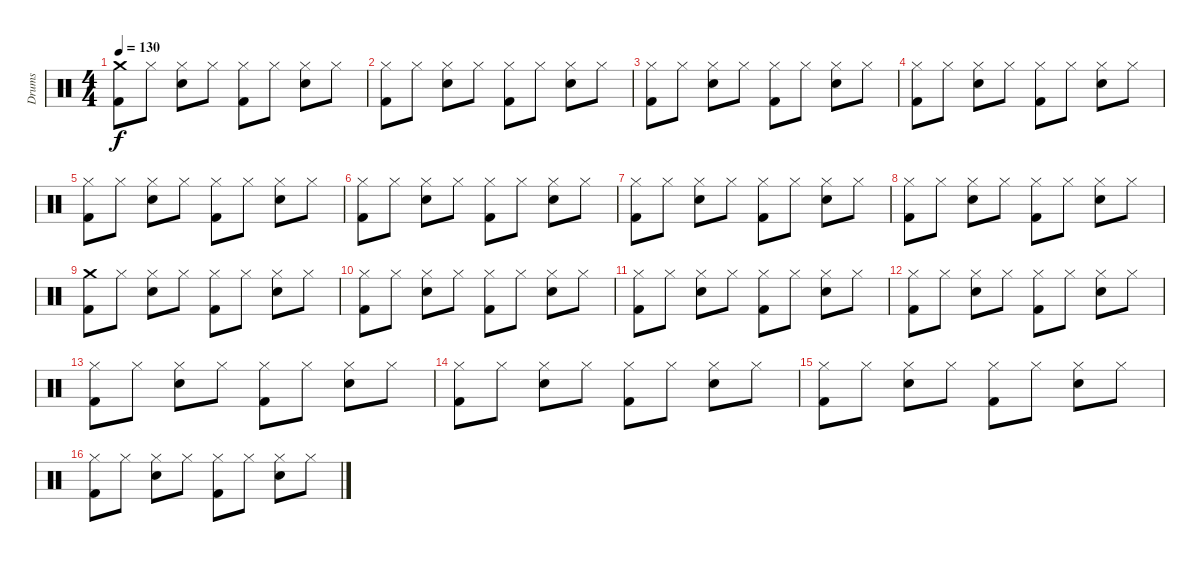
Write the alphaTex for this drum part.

\track ("Drums" "Drums") {instrument percussion}
\staff {score}
\articulation defaults
\ts (4 4)
\tempo 130
\clef neutral
\ks c
("Crash medium (hit)" "Kick (hit) 2").8{dy f} "Hi-Hat (closed)".8 ("Hi-Hat (closed)" "Snare (hit) 2").8 "Hi-Hat (closed)".8 ("Hi-Hat (closed)" "Kick (hit) 2").8 "Hi-Hat (closed)".8 ("Hi-Hat (closed)" "Snare (hit) 2").8 "Hi-Hat (closed)".8 |
("Hi-Hat (closed)" "Kick (hit) 2").8 "Hi-Hat (closed)".8 ("Hi-Hat (closed)" "Snare (hit) 2").8 "Hi-Hat (closed)".8 ("Hi-Hat (closed)" "Kick (hit) 2").8 "Hi-Hat (closed)".8 ("Hi-Hat (closed)" "Snare (hit) 2").8 "Hi-Hat (closed)".8 |
("Hi-Hat (closed)" "Kick (hit) 2").8 "Hi-Hat (closed)".8 ("Hi-Hat (closed)" "Snare (hit) 2").8 "Hi-Hat (closed)".8 ("Hi-Hat (closed)" "Kick (hit) 2").8 "Hi-Hat (closed)".8 ("Hi-Hat (closed)" "Snare (hit) 2").8 "Hi-Hat (closed)".8 |
("Hi-Hat (closed)" "Kick (hit) 2").8 "Hi-Hat (closed)".8 ("Hi-Hat (closed)" "Snare (hit) 2").8 "Hi-Hat (closed)".8 ("Hi-Hat (closed)" "Kick (hit) 2").8 "Hi-Hat (closed)".8 ("Hi-Hat (closed)" "Snare (hit) 2").8 "Hi-Hat (closed)".8 |
("Hi-Hat (closed)" "Kick (hit) 2").8 "Hi-Hat (closed)".8 ("Hi-Hat (closed)" "Snare (hit) 2").8 "Hi-Hat (closed)".8 ("Hi-Hat (closed)" "Kick (hit) 2").8 "Hi-Hat (closed)".8 ("Hi-Hat (closed)" "Snare (hit) 2").8 "Hi-Hat (closed)".8 |
("Hi-Hat (closed)" "Kick (hit) 2").8 "Hi-Hat (closed)".8 ("Hi-Hat (closed)" "Snare (hit) 2").8 "Hi-Hat (closed)".8 ("Hi-Hat (closed)" "Kick (hit) 2").8 "Hi-Hat (closed)".8 ("Hi-Hat (closed)" "Snare (hit) 2").8 "Hi-Hat (closed)".8 |
("Hi-Hat (closed)" "Kick (hit) 2").8 "Hi-Hat (closed)".8 ("Hi-Hat (closed)" "Snare (hit) 2").8 "Hi-Hat (closed)".8 ("Hi-Hat (closed)" "Kick (hit) 2").8 "Hi-Hat (closed)".8 ("Hi-Hat (closed)" "Snare (hit) 2").8 "Hi-Hat (closed)".8 |
("Hi-Hat (closed)" "Kick (hit) 2").8 "Hi-Hat (closed)".8 ("Hi-Hat (closed)" "Snare (hit) 2").8 "Hi-Hat (closed)".8 ("Hi-Hat (closed)" "Kick (hit) 2").8 "Hi-Hat (closed)".8 ("Hi-Hat (closed)" "Snare (hit) 2").8 "Hi-Hat (closed)".8 |
("Crash medium (hit)" "Kick (hit) 2").8 "Hi-Hat (closed)".8 ("Hi-Hat (closed)" "Snare (hit) 2").8 "Hi-Hat (closed)".8 ("Hi-Hat (closed)" "Kick (hit) 2").8 "Hi-Hat (closed)".8 ("Hi-Hat (closed)" "Snare (hit) 2").8 "Hi-Hat (closed)".8 |
("Hi-Hat (closed)" "Kick (hit) 2").8 "Hi-Hat (closed)".8 ("Hi-Hat (closed)" "Snare (hit) 2").8 "Hi-Hat (closed)".8 ("Hi-Hat (closed)" "Kick (hit) 2").8 "Hi-Hat (closed)".8 ("Hi-Hat (closed)" "Snare (hit) 2").8 "Hi-Hat (closed)".8 |
("Hi-Hat (closed)" "Kick (hit) 2").8 "Hi-Hat (closed)".8 ("Hi-Hat (closed)" "Snare (hit) 2").8 "Hi-Hat (closed)".8 ("Hi-Hat (closed)" "Kick (hit) 2").8 "Hi-Hat (closed)".8 ("Hi-Hat (closed)" "Snare (hit) 2").8 "Hi-Hat (closed)".8 |
("Hi-Hat (closed)" "Kick (hit) 2").8 "Hi-Hat (closed)".8 ("Hi-Hat (closed)" "Snare (hit) 2").8 "Hi-Hat (closed)".8 ("Hi-Hat (closed)" "Kick (hit) 2").8 "Hi-Hat (closed)".8 ("Hi-Hat (closed)" "Snare (hit) 2").8 "Hi-Hat (closed)".8 |
("Hi-Hat (closed)" "Kick (hit) 2").8 "Hi-Hat (closed)".8 ("Hi-Hat (closed)" "Snare (hit) 2").8 "Hi-Hat (closed)".8 ("Hi-Hat (closed)" "Kick (hit) 2").8 "Hi-Hat (closed)".8 ("Hi-Hat (closed)" "Snare (hit) 2").8 "Hi-Hat (closed)".8 |
("Hi-Hat (closed)" "Kick (hit) 2").8 "Hi-Hat (closed)".8 ("Hi-Hat (closed)" "Snare (hit) 2").8 "Hi-Hat (closed)".8 ("Hi-Hat (closed)" "Kick (hit) 2").8 "Hi-Hat (closed)".8 ("Hi-Hat (closed)" "Snare (hit) 2").8 "Hi-Hat (closed)".8 |
("Hi-Hat (closed)" "Kick (hit) 2").8 "Hi-Hat (closed)".8 ("Hi-Hat (closed)" "Snare (hit) 2").8 "Hi-Hat (closed)".8 ("Hi-Hat (closed)" "Kick (hit) 2").8 "Hi-Hat (closed)".8 ("Hi-Hat (closed)" "Snare (hit) 2").8 "Hi-Hat (closed)".8 |
("Hi-Hat (closed)" "Kick (hit) 2").8 "Hi-Hat (closed)".8 ("Hi-Hat (closed)" "Snare (hit) 2").8 "Hi-Hat (closed)".8 ("Hi-Hat (closed)" "Kick (hit) 2").8 "Hi-Hat (closed)".8 ("Hi-Hat (closed)" "Snare (hit) 2").8 "Hi-Hat (closed)".8
